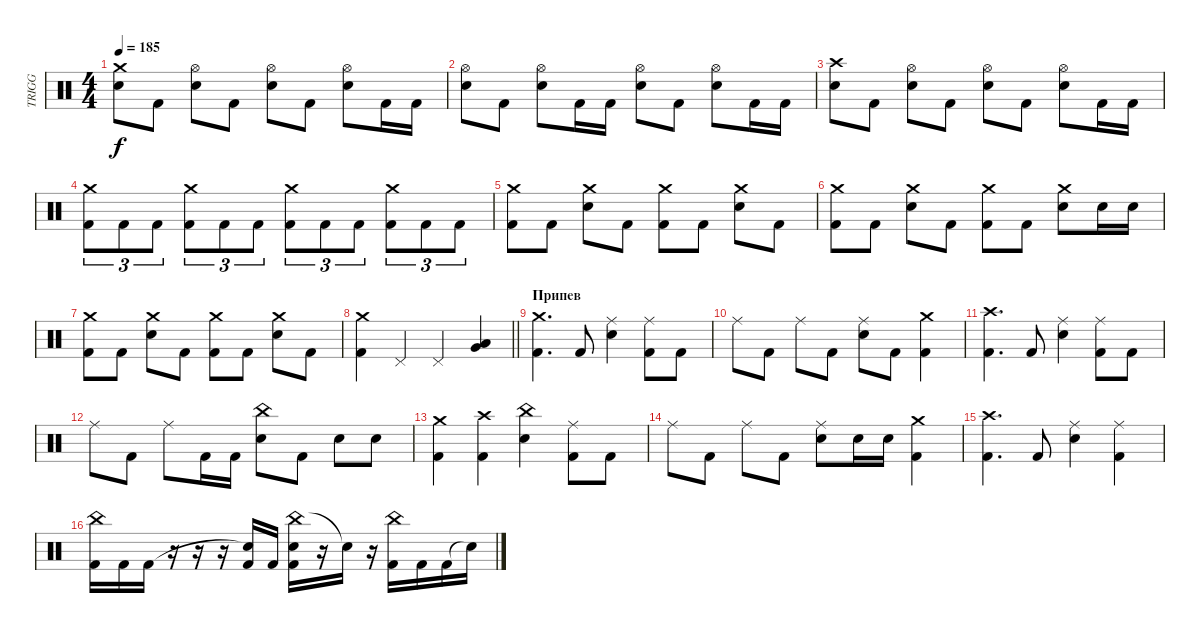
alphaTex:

\track ("TRIGG" "TRIGG") {instrument percussion}
\staff {score}
\articulation defaults
\ts (4 4)
\tempo 185
\clef neutral
\ks c
("Crash medium (hit)" "Electric Snare (hit)").8{dy f} "Kick (hit) 2".8 ("Hi-Hat (open)" "Electric Snare (hit)").8 "Kick (hit) 2".8 ("Hi-Hat (open)" "Electric Snare (hit)").8 "Kick (hit) 2".8 ("Hi-Hat (open)" "Electric Snare (hit)").8 "Kick (hit) 2".16 "Kick (hit) 2".16 |
("Hi-Hat (open)" "Electric Snare (hit)").8 "Kick (hit) 2".8 ("Hi-Hat (open)" "Electric Snare (hit)").8 "Kick (hit) 2".16 "Kick (hit) 2".16 ("Hi-Hat (open)" "Electric Snare (hit)").8 "Kick (hit) 2".8 ("Hi-Hat (open)" "Electric Snare (hit)").8 "Kick (hit) 2".16 "Kick (hit) 2".16 |
("Crash high (hit)" "Electric Snare (hit)").8 "Kick (hit) 2".8 ("Hi-Hat (open)" "Electric Snare (hit)").8 "Kick (hit) 2".8 ("Hi-Hat (open)" "Electric Snare (hit)").8 "Kick (hit) 2".8 ("Hi-Hat (open)" "Electric Snare (hit)").8 "Kick (hit) 2".16 "Kick (hit) 2".16 |
("Crash medium (hit)" "Kick (hit) 2").8{tu (3 2)} "Kick (hit) 2".8{tu (3 2)} "Kick (hit) 2".8{tu (3 2)} ("Crash medium (hit)" "Kick (hit) 2").8{tu (3 2)} "Kick (hit) 2".8{tu (3 2)} "Kick (hit) 2".8{tu (3 2)} ("Crash medium (hit)" "Kick (hit) 2").8{tu (3 2)} "Kick (hit) 2".8{tu (3 2)} "Kick (hit) 2".8{tu (3 2)} ("Crash medium (hit)" "Kick (hit) 2").8{tu (3 2)} "Kick (hit) 2".8{tu (3 2)} "Kick (hit) 2".8{tu (3 2)} |
("Crash medium (hit)" "Kick (hit) 2").8 "Kick (hit) 2".8 ("Crash medium (hit)" "Electric Snare (hit)").8 "Kick (hit) 2".8 ("Crash medium (hit)" "Kick (hit) 2").8 "Kick (hit) 2".8 ("Crash medium (hit)" "Electric Snare (hit)").8 "Kick (hit) 2".8 |
("Crash medium (hit)" "Kick (hit) 2").8 "Kick (hit) 2".8 ("Crash medium (hit)" "Electric Snare (hit)").8 "Kick (hit) 2".8 ("Crash medium (hit)" "Kick (hit) 2").8 "Kick (hit) 2".8 ("Crash medium (hit)" "Electric Snare (hit)").8 "Electric Snare (hit)".16 "Electric Snare (hit)".16 |
("Crash medium (hit)" "Kick (hit) 2").8 "Kick (hit) 2".8 ("Crash medium (hit)" "Electric Snare (hit)").8 "Kick (hit) 2".8 ("Crash medium (hit)" "Kick (hit) 2").8 "Kick (hit) 2".8 ("Crash medium (hit)" "Electric Snare (hit)").8 "Kick (hit) 2".8 |
\barLineRight lightlight
("Crash medium (hit)" "Kick (hit) 2").4 "Pedal Hi-Hat (hit)".4 "Pedal Hi-Hat (hit)".4 ("Very Low Tom (hit)" "Low Floor Tom (hit)").4 |
\section ("" "Припев")
("Crash medium (hit)" "Kick (hit) 2").4{d} "Kick (hit) 2".8 ("Ride (middle)" "Electric Snare (hit)").4 ("Ride (middle)" "Kick (hit) 2").8 "Kick (hit) 2".8 |
"Ride (middle)".8 "Kick (hit) 2".8 "Ride (middle)".8 "Kick (hit) 2".8 ("Ride (middle)" "Electric Snare (hit)").8 "Kick (hit) 2".8 ("Crash medium (hit)" "Kick (hit) 2").4 |
("Crash high (hit)" "Kick (hit) 2").4{d} "Kick (hit) 2".8 ("Ride (middle)" "Electric Snare (hit)").4 ("Ride (middle)" "Kick (hit) 2").8 "Kick (hit) 2".8 |
"Ride (middle)".8 "Kick (hit) 2".8 "Ride (middle)".8 "Kick (hit) 2".16 "Kick (hit) 2".16 ("China (hit)" "Electric Snare (hit)").8 "Kick (hit) 2".8 "Electric Snare (hit)".8 "Electric Snare (hit)".8 |
("Crash medium (hit)" "Kick (hit) 2").4 ("Crash high (hit)" "Kick (hit) 2").4 ("China (hit)" "Electric Snare (hit)").4 ("Ride (middle)" "Kick (hit) 2").8 "Kick (hit) 2".8 |
"Ride (middle)".8 "Kick (hit) 2".8 "Ride (middle)".8 "Kick (hit) 2".8 ("Ride (middle)" "Electric Snare (hit)").8 "Electric Snare (hit)".16 "Electric Snare (hit)".16 ("Crash medium (hit)" "Kick (hit) 2").4 |
("Crash high (hit)" "Kick (hit) 2").4{d} "Kick (hit) 2".8 ("Ride (middle)" "Electric Snare (hit)").4 ("Ride (middle)" "Kick (hit) 2").4 |
("China (hit)" "Kick (hit) 2").16 "Kick (hit) 2".16 "Kick (hit) 2".16 r.16 r.16 r.16 ("Snare (hit)"{t} "Kick (hit) 2").16 "Kick (hit) 2".16 ("China (hit)" "Electric Snare (hit)" "Kick (hit) 2").16 r.16 "Snare (hit)"{t}.16 r.16 ("China (hit)" "Kick (hit) 2").16 "Kick (hit) 2".16 "Kick (hit) 2".16 "Snare (hit)"{t}.16
